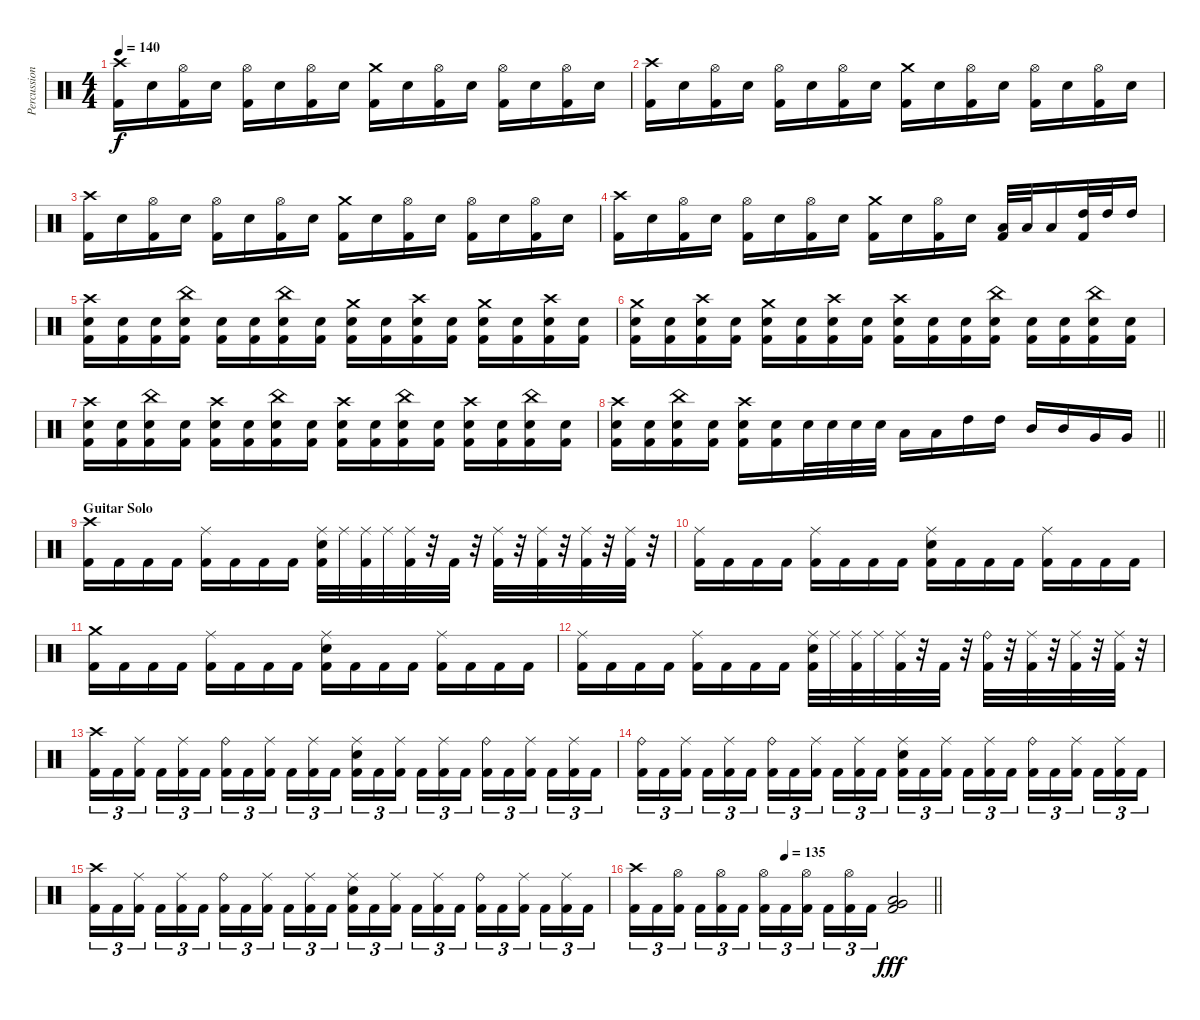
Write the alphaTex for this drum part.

\track ("Percussion" "Percussion") {instrument percussion}
\staff {score}
\articulation defaults
\ts (4 4)
\tempo 140
\clef neutral
\ks c
("Crash high (hit)" "Kick (hit) 2").16{dy f} "Electric Snare (hit)".16 ("Hi-Hat (open)" "Kick (hit) 2").16 "Electric Snare (hit)".16 ("Hi-Hat (open)" "Kick (hit) 2").16 "Electric Snare (hit)".16 ("Hi-Hat (open)" "Kick (hit) 2").16 "Electric Snare (hit)".16 ("Crash medium (hit)" "Kick (hit) 2").16 "Electric Snare (hit)".16 ("Hi-Hat (open)" "Kick (hit) 2").16 "Electric Snare (hit)".16 ("Hi-Hat (open)" "Kick (hit) 2").16 "Electric Snare (hit)".16 ("Hi-Hat (open)" "Kick (hit) 2").16 "Electric Snare (hit)".16 |
("Crash high (hit)" "Kick (hit) 2").16 "Electric Snare (hit)".16 ("Hi-Hat (open)" "Kick (hit) 2").16 "Electric Snare (hit)".16 ("Hi-Hat (open)" "Kick (hit) 2").16 "Electric Snare (hit)".16 ("Hi-Hat (open)" "Kick (hit) 2").16 "Electric Snare (hit)".16 ("Crash medium (hit)" "Kick (hit) 2").16 "Electric Snare (hit)".16 ("Hi-Hat (open)" "Kick (hit) 2").16 "Electric Snare (hit)".16 ("Hi-Hat (open)" "Kick (hit) 2").16 "Electric Snare (hit)".16 ("Hi-Hat (open)" "Kick (hit) 2").16 "Electric Snare (hit)".16 |
("Crash high (hit)" "Kick (hit) 2").16 "Electric Snare (hit)".16 ("Hi-Hat (open)" "Kick (hit) 2").16 "Electric Snare (hit)".16 ("Hi-Hat (open)" "Kick (hit) 2").16 "Electric Snare (hit)".16 ("Hi-Hat (open)" "Kick (hit) 2").16 "Electric Snare (hit)".16 ("Crash medium (hit)" "Kick (hit) 2").16 "Electric Snare (hit)".16 ("Hi-Hat (open)" "Kick (hit) 2").16 "Electric Snare (hit)".16 ("Hi-Hat (open)" "Kick (hit) 2").16 "Electric Snare (hit)".16 ("Hi-Hat (open)" "Kick (hit) 2").16 "Electric Snare (hit)".16 |
("Crash high (hit)" "Kick (hit) 2").16 "Electric Snare (hit)".16 ("Hi-Hat (open)" "Kick (hit) 2").16 "Electric Snare (hit)".16 ("Hi-Hat (open)" "Kick (hit) 2").16 "Electric Snare (hit)".16 ("Hi-Hat (open)" "Kick (hit) 2").16 "Electric Snare (hit)".16 ("Crash medium (hit)" "Kick (hit) 2").16 "Electric Snare (hit)".16 ("Hi-Hat (open)" "Kick (hit) 2").16 "Electric Snare (hit)".16 ("Low Tom (hit)" "Kick (hit) 2").32 "Low Tom (hit)".32 "Low Tom (hit)".16 ("High Tom (hit)" "Kick (hit) 2").32 "High Tom (hit)".32 "High Tom (hit)".16 |
("Crash high (hit)" "Electric Snare (hit)" "Kick (hit) 2").16 ("Electric Snare (hit)" "Kick (hit) 2").16 ("Electric Snare (hit)" "Kick (hit) 2").16 ("China (hit)" "Electric Snare (hit)" "Kick (hit) 2").16 ("Electric Snare (hit)" "Kick (hit) 2").16 ("Electric Snare (hit)" "Kick (hit) 2").16 ("China (hit)" "Electric Snare (hit)" "Kick (hit) 2").16 ("Electric Snare (hit)" "Kick (hit) 2").16 ("Crash medium (hit)" "Electric Snare (hit)" "Kick (hit) 2").16 ("Electric Snare (hit)" "Kick (hit) 2").16 ("Crash high (hit)" "Electric Snare (hit)" "Kick (hit) 2").16 ("Electric Snare (hit)" "Kick (hit) 2").16 ("Crash medium (hit)" "Electric Snare (hit)" "Kick (hit) 2").16 ("Electric Snare (hit)" "Kick (hit) 2").16 ("Crash high (hit)" "Electric Snare (hit)" "Kick (hit) 2").16 ("Electric Snare (hit)" "Kick (hit) 2").16 |
("Crash medium (hit)" "Electric Snare (hit)" "Kick (hit) 2").16 ("Electric Snare (hit)" "Kick (hit) 2").16 ("Crash high (hit)" "Electric Snare (hit)" "Kick (hit) 2").16 ("Electric Snare (hit)" "Kick (hit) 2").16 ("Crash medium (hit)" "Electric Snare (hit)" "Kick (hit) 2").16 ("Electric Snare (hit)" "Kick (hit) 2").16 ("Crash high (hit)" "Electric Snare (hit)" "Kick (hit) 2").16 ("Electric Snare (hit)" "Kick (hit) 2").16 ("Crash high (hit)" "Electric Snare (hit)" "Kick (hit) 2").16 ("Electric Snare (hit)" "Kick (hit) 2").16 ("Electric Snare (hit)" "Kick (hit) 2").16 ("China (hit)" "Electric Snare (hit)" "Kick (hit) 2").16 ("Electric Snare (hit)" "Kick (hit) 2").16 ("Electric Snare (hit)" "Kick (hit) 2").16 ("China (hit)" "Electric Snare (hit)" "Kick (hit) 2").16 ("Electric Snare (hit)" "Kick (hit) 2").16 |
("Crash high (hit)" "Electric Snare (hit)" "Kick (hit) 2").16 ("Electric Snare (hit)" "Kick (hit) 2").16 ("China (hit)" "Electric Snare (hit)" "Kick (hit) 2").16 ("Electric Snare (hit)" "Kick (hit) 2").16 ("Crash high (hit)" "Electric Snare (hit)" "Kick (hit) 2").16 ("Electric Snare (hit)" "Kick (hit) 2").16 ("China (hit)" "Electric Snare (hit)" "Kick (hit) 2").16 ("Electric Snare (hit)" "Kick (hit) 2").16 ("Crash high (hit)" "Electric Snare (hit)" "Kick (hit) 2").16 ("Electric Snare (hit)" "Kick (hit) 2").16 ("China (hit)" "Electric Snare (hit)" "Kick (hit) 2").16 ("Electric Snare (hit)" "Kick (hit) 2").16 ("Crash high (hit)" "Electric Snare (hit)" "Kick (hit) 2").16 ("Electric Snare (hit)" "Kick (hit) 2").16 ("China (hit)" "Electric Snare (hit)" "Kick (hit) 2").16 ("Electric Snare (hit)" "Kick (hit) 2").16 |
\barLineRight lightlight
("Crash high (hit)" "Electric Snare (hit)" "Kick (hit) 2").16 ("Electric Snare (hit)" "Kick (hit) 2").16 ("China (hit)" "Electric Snare (hit)" "Kick (hit) 2").16 ("Electric Snare (hit)" "Kick (hit) 2").16 ("Crash high (hit)" "Electric Snare (hit)" "Kick (hit) 2").16 ("Electric Snare (hit)" "Kick (hit) 2").16 "Electric Snare (hit)".32 "Electric Snare (hit)".32 "Electric Snare (hit)".32 "Electric Snare (hit)".32 "Low Tom (hit)".16 "Low Tom (hit)".16 "High Tom (hit)".16 "High Tom (hit)".16 "Mid Tom (hit)".16 "Mid Tom (hit)".16 "Very Low Tom (hit)".16 "Very Low Tom (hit)".16 |
\section ("" "Guitar Solo")
("Crash high (hit)" "Kick (hit) 2").16 "Kick (hit) 2".16 "Kick (hit) 2".16 "Kick (hit) 2".16 ("Ride (middle)" "Kick (hit) 2").16 "Kick (hit) 2".16 "Kick (hit) 2".16 "Kick (hit) 2".16 ("Ride (middle)" "Electric Snare (hit)" "Kick (hit) 2").32 "Ride (middle)".32 ("Ride (middle)" "Kick (hit) 2").32 "Ride (middle)".32 ("Ride (middle)" "Kick (hit) 2").32 r.32 "Kick (hit) 2".32 r.32 ("Ride (middle)" "Kick (hit) 2").32 r.32 ("Ride (middle)" "Kick (hit) 2").32 r.32 ("Ride (middle)" "Kick (hit) 2").32 r.32 ("Ride (middle)" "Kick (hit) 2").32 r.32 |
("Ride (middle)" "Kick (hit) 2").16 "Kick (hit) 2".16 "Kick (hit) 2".16 "Kick (hit) 2".16 ("Ride (middle)" "Kick (hit) 2").16 "Kick (hit) 2".16 "Kick (hit) 2".16 "Kick (hit) 2".16 ("Ride (middle)" "Electric Snare (hit)" "Kick (hit) 2").16 "Kick (hit) 2".16 "Kick (hit) 2".16 "Kick (hit) 2".16 ("Ride (middle)" "Kick (hit) 2").16 "Kick (hit) 2".16 "Kick (hit) 2".16 "Kick (hit) 2".16 |
("Crash medium (hit)" "Kick (hit) 2").16 "Kick (hit) 2".16 "Kick (hit) 2".16 "Kick (hit) 2".16 ("Ride (middle)" "Kick (hit) 2").16 "Kick (hit) 2".16 "Kick (hit) 2".16 "Kick (hit) 2".16 ("Ride (middle)" "Electric Snare (hit)" "Kick (hit) 2").16 "Kick (hit) 2".16 "Kick (hit) 2".16 "Kick (hit) 2".16 ("Ride (middle)" "Kick (hit) 2").16 "Kick (hit) 2".16 "Kick (hit) 2".16 "Kick (hit) 2".16 |
("Ride (middle)" "Kick (hit) 2").16 "Kick (hit) 2".16 "Kick (hit) 2".16 "Kick (hit) 2".16 ("Ride (middle)" "Kick (hit) 2").16 "Kick (hit) 2".16 "Kick (hit) 2".16 "Kick (hit) 2".16 ("Ride (middle)" "Electric Snare (hit)" "Kick (hit) 2").32 "Ride (middle)".32 ("Ride (middle)" "Kick (hit) 2").32 "Ride (middle)".32 ("Ride (middle)" "Kick (hit) 2").32 r.32 "Kick (hit) 2".32 r.32 ("Ride (bell)" "Kick (hit) 2").32 r.32 ("Ride (middle)" "Kick (hit) 2").32 r.32 ("Ride (middle)" "Kick (hit) 2").32 r.32 ("Ride (middle)" "Kick (hit) 2").32 r.32 |
("Crash high (hit)" "Kick (hit) 2").16{tu (3 2)} "Kick (hit) 2".16{tu (3 2)} ("Ride (middle)" "Kick (hit) 2").16{tu (3 2) beam splitsecondary} "Kick (hit) 2".16{tu (3 2)} ("Ride (middle)" "Kick (hit) 2").16{tu (3 2)} "Kick (hit) 2".16{tu (3 2)} ("Ride (bell)" "Kick (hit) 2").16{tu (3 2)} "Kick (hit) 2".16{tu (3 2)} ("Ride (middle)" "Kick (hit) 2").16{tu (3 2) beam splitsecondary} "Kick (hit) 2".16{tu (3 2)} ("Ride (middle)" "Kick (hit) 2").16{tu (3 2)} "Kick (hit) 2".16{tu (3 2)} ("Ride (middle)" "Electric Snare (hit)" "Kick (hit) 2").16{tu (3 2)} "Kick (hit) 2".16{tu (3 2)} ("Ride (middle)" "Kick (hit) 2").16{tu (3 2) beam splitsecondary} "Kick (hit) 2".16{tu (3 2)} ("Ride (middle)" "Kick (hit) 2").16{tu (3 2)} "Kick (hit) 2".16{tu (3 2)} ("Ride (bell)" "Kick (hit) 2").16{tu (3 2)} "Kick (hit) 2".16{tu (3 2)} ("Ride (middle)" "Kick (hit) 2").16{tu (3 2) beam splitsecondary} "Kick (hit) 2".16{tu (3 2)} ("Ride (middle)" "Kick (hit) 2").16{tu (3 2)} "Kick (hit) 2".16{tu (3 2)} |
("Ride (bell)" "Kick (hit) 2").16{tu (3 2)} "Kick (hit) 2".16{tu (3 2)} ("Ride (middle)" "Kick (hit) 2").16{tu (3 2) beam splitsecondary} "Kick (hit) 2".16{tu (3 2)} ("Ride (middle)" "Kick (hit) 2").16{tu (3 2)} "Kick (hit) 2".16{tu (3 2)} ("Ride (bell)" "Kick (hit) 2").16{tu (3 2)} "Kick (hit) 2".16{tu (3 2)} ("Ride (middle)" "Kick (hit) 2").16{tu (3 2) beam splitsecondary} "Kick (hit) 2".16{tu (3 2)} ("Ride (middle)" "Kick (hit) 2").16{tu (3 2)} "Kick (hit) 2".16{tu (3 2)} ("Ride (middle)" "Electric Snare (hit)" "Kick (hit) 2").16{tu (3 2)} "Kick (hit) 2".16{tu (3 2)} ("Ride (middle)" "Kick (hit) 2").16{tu (3 2) beam splitsecondary} "Kick (hit) 2".16{tu (3 2)} ("Ride (middle)" "Kick (hit) 2").16{tu (3 2)} "Kick (hit) 2".16{tu (3 2)} ("Ride (bell)" "Kick (hit) 2").16{tu (3 2)} "Kick (hit) 2".16{tu (3 2)} ("Ride (middle)" "Kick (hit) 2").16{tu (3 2) beam splitsecondary} "Kick (hit) 2".16{tu (3 2)} ("Ride (middle)" "Kick (hit) 2").16{tu (3 2)} "Kick (hit) 2".16{tu (3 2)} |
("Crash high (hit)" "Kick (hit) 2").16{tu (3 2)} "Kick (hit) 2".16{tu (3 2)} ("Ride (middle)" "Kick (hit) 2").16{tu (3 2) beam splitsecondary} "Kick (hit) 2".16{tu (3 2)} ("Ride (middle)" "Kick (hit) 2").16{tu (3 2)} "Kick (hit) 2".16{tu (3 2)} ("Ride (bell)" "Kick (hit) 2").16{tu (3 2)} "Kick (hit) 2".16{tu (3 2)} ("Ride (middle)" "Kick (hit) 2").16{tu (3 2) beam splitsecondary} "Kick (hit) 2".16{tu (3 2)} ("Ride (middle)" "Kick (hit) 2").16{tu (3 2)} "Kick (hit) 2".16{tu (3 2)} ("Ride (middle)" "Electric Snare (hit)" "Kick (hit) 2").16{tu (3 2)} "Kick (hit) 2".16{tu (3 2)} ("Ride (middle)" "Kick (hit) 2").16{tu (3 2) beam splitsecondary} "Kick (hit) 2".16{tu (3 2)} ("Ride (middle)" "Kick (hit) 2").16{tu (3 2)} "Kick (hit) 2".16{tu (3 2)} ("Ride (bell)" "Kick (hit) 2").16{tu (3 2)} "Kick (hit) 2".16{tu (3 2)} ("Ride (middle)" "Kick (hit) 2").16{tu (3 2) beam splitsecondary} "Kick (hit) 2".16{tu (3 2)} ("Ride (middle)" "Kick (hit) 2").16{tu (3 2)} "Kick (hit) 2".16{tu (3 2)} |
\tempo (135 0.5)
\barLineRight lightlight
("Crash high (hit)" "Kick (hit) 2").16{tu (3 2)} "Kick (hit) 2".16{tu (3 2)} ("Hi-Hat (open)" "Kick (hit) 2").16{tu (3 2) beam splitsecondary} "Kick (hit) 2".16{tu (3 2)} ("Hi-Hat (open)" "Kick (hit) 2").16{tu (3 2)} "Kick (hit) 2".16{tu (3 2)} ("Hi-Hat (open)" "Kick (hit) 2").16{tu (3 2)} "Kick (hit) 2".16{tu (3 2)} ("Hi-Hat (open)" "Kick (hit) 2").16{tu (3 2) beam splitsecondary} "Kick (hit) 2".16{tu (3 2)} ("Hi-Hat (open)" "Kick (hit) 2").16{tu (3 2)} "Kick (hit) 2".16{tu (3 2)} ("Low Floor Tom (hit)" "Very Low Tom (hit)" "Kick (hit) 2").2{dy fff}
